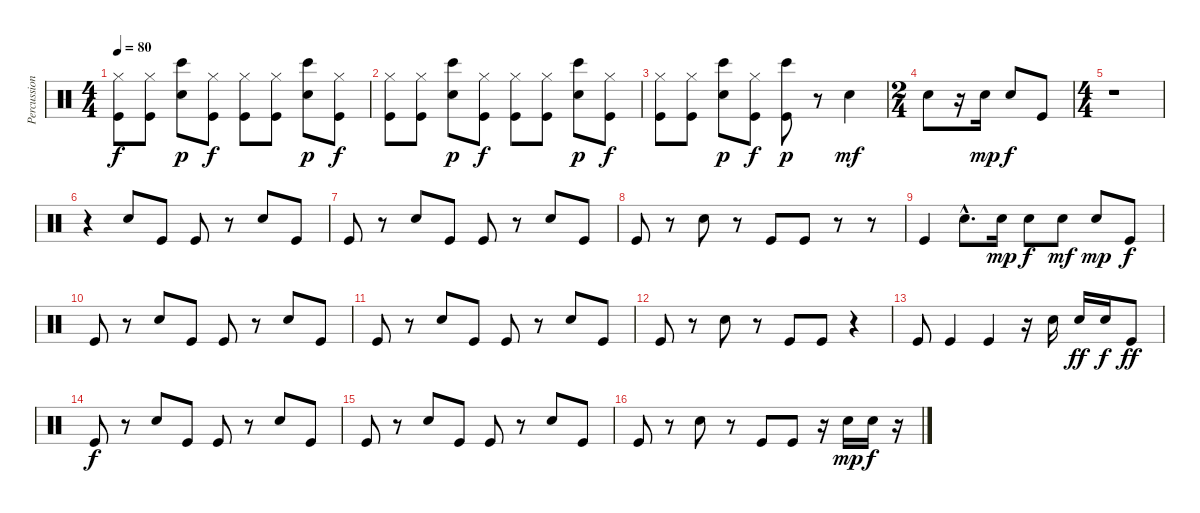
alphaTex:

\track ("Percussions" "Percussion") {instrument percussion}
\staff {score}
\articulation defaults
\ts (4 4)
\tempo 80
\clef neutral
\ks c
("Kick (hit)" "Hi-Hat (closed)").8{dy f} ("Kick (hit)" "Hi-Hat (closed)").8 ("Electric Snare (hit)" "Bongo High (hit)").8{dy p} ("Kick (hit)" "Hi-Hat (closed)").8{dy f} ("Kick (hit)" "Hi-Hat (closed)").8 ("Kick (hit)" "Hi-Hat (closed)").8 ("Electric Snare (hit)" "Bongo High (hit)").8{dy p} ("Kick (hit)" "Hi-Hat (closed)").8{dy f} |
("Kick (hit)" "Hi-Hat (closed)").8 ("Kick (hit)" "Hi-Hat (closed)").8 ("Electric Snare (hit)" "Bongo High (hit)").8{dy p} ("Kick (hit)" "Hi-Hat (closed)").8{dy f} ("Kick (hit)" "Hi-Hat (closed)").8 ("Kick (hit)" "Hi-Hat (closed)").8 ("Electric Snare (hit)" "Bongo High (hit)").8{dy p} ("Kick (hit)" "Hi-Hat (closed)").8{dy f} |
("Kick (hit)" "Hi-Hat (closed)").8 ("Kick (hit)" "Hi-Hat (closed)").8 ("Electric Snare (hit)" "Bongo High (hit)").8{dy p} ("Kick (hit)" "Hi-Hat (closed)").8{dy f} ("Kick (hit)" "Bongo High (hit)").8{dy p} r.8 "Electric Snare (hit)".4{dy mf} |
\ts (2 4)
"Electric Snare (hit)".8 r.16 "Electric Snare (hit)".16{dy mp} "Electric Snare (hit)".8{dy f} "Kick (hit)".8 |
\ts (4 4)
r.1 |
r.4 "Electric Snare (hit)".8 "Kick (hit)".8 "Kick (hit)".8 r.8 "Electric Snare (hit)".8 "Kick (hit)".8 |
"Kick (hit)".8 r.8 "Electric Snare (hit)".8 "Kick (hit)".8 "Kick (hit)".8 r.8 "Electric Snare (hit)".8 "Kick (hit)".8 |
"Kick (hit)".8 r.8 "Electric Snare (hit)".8 r.8 "Kick (hit)".8 "Kick (hit)".8 r.8 r.8 |
"Kick (hit)".4 "Electric Snare (hit)"{hac}.8{d} "Electric Snare (hit)".16{dy mp} "Electric Snare (hit)".8{dy f} "Electric Snare (hit)".8{dy mf} "Electric Snare (hit)".8{dy mp} "Kick (hit)".8{dy f} |
"Kick (hit)".8 r.8 "Electric Snare (hit)".8 "Kick (hit)".8 "Kick (hit)".8 r.8 "Electric Snare (hit)".8 "Kick (hit)".8 |
"Kick (hit)".8 r.8 "Electric Snare (hit)".8 "Kick (hit)".8 "Kick (hit)".8 r.8 "Electric Snare (hit)".8 "Kick (hit)".8 |
"Kick (hit)".8 r.8 "Electric Snare (hit)".8 r.8 "Kick (hit)".8 "Kick (hit)".8 r.4 |
"Kick (hit)".8 "Kick (hit)".4 "Kick (hit)".4 r.16 "Electric Snare (hit)".16 "Electric Snare (hit)".16{dy ff} "Electric Snare (hit)".16{dy f} "Kick (hit)".8{dy ff} |
"Kick (hit)".8{dy f} r.8 "Electric Snare (hit)".8 "Kick (hit)".8 "Kick (hit)".8 r.8 "Electric Snare (hit)".8 "Kick (hit)".8 |
"Kick (hit)".8 r.8 "Electric Snare (hit)".8 "Kick (hit)".8 "Kick (hit)".8 r.8 "Electric Snare (hit)".8 "Kick (hit)".8 |
"Kick (hit)".8 r.8 "Electric Snare (hit)".8 r.8 "Kick (hit)".8 "Kick (hit)".8 r.16 "Electric Snare (hit)".16{dy mp} "Electric Snare (hit)".16{dy f} r.16
